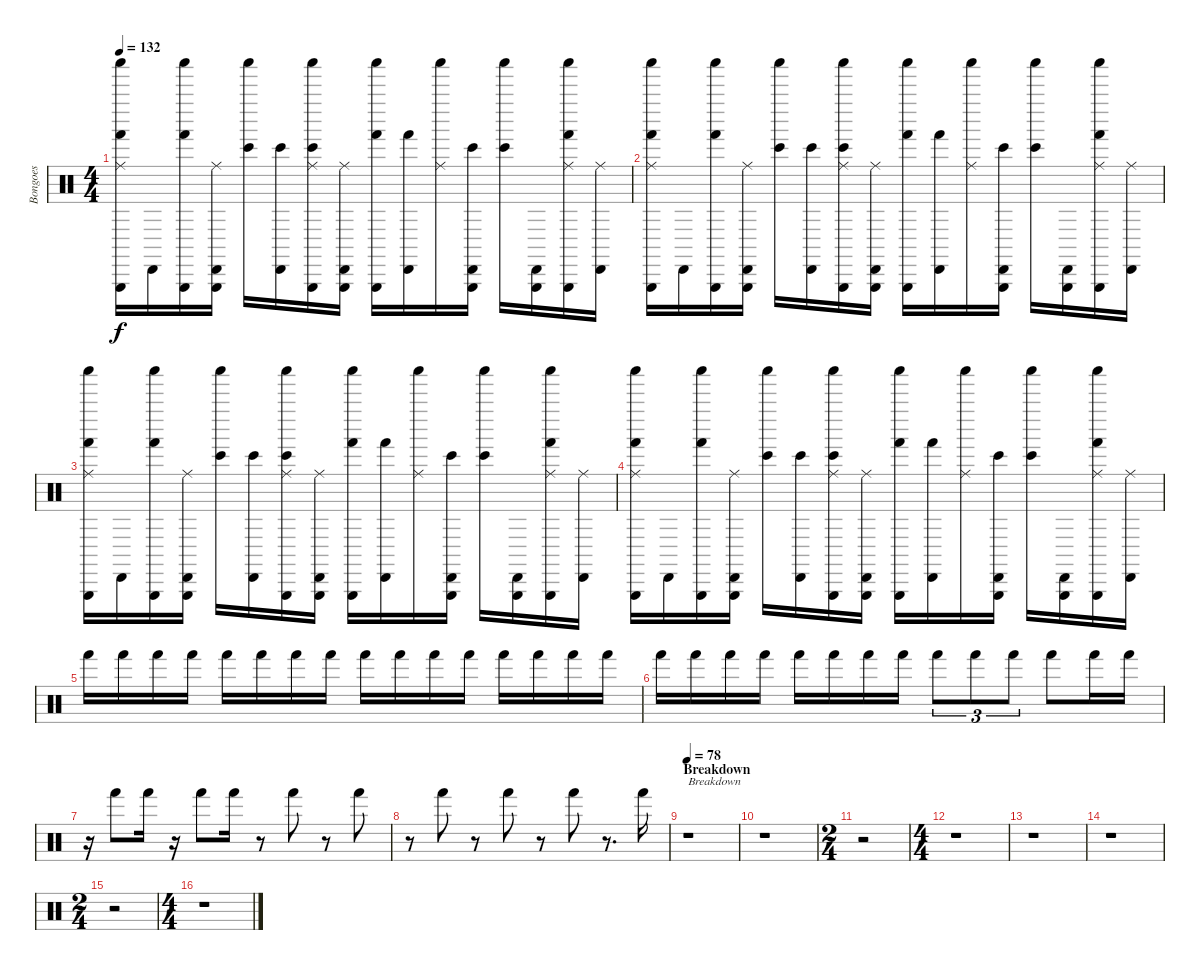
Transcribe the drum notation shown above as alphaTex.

\track ("Bongoes" "Bongoes") {instrument percussion}
\staff {score}
\articulation defaults
\ts (4 4)
\tempo 132
\clef neutral
\ks c
("Shaker (hit)" "Triangle (hit)" "Hand (hit)" "Ride (middle)").16{dy f} "Cabasa (hit)".16 ("Shaker (hit)" "Triangle (hit)" "Hand (hit)").16 ("Cabasa (hit)" "Triangle (hit)" "Ride (middle)").16 ("Shaker (hit)" "Bongo High (hit)").16 ("Cabasa (hit)" "Bongo High (hit)").16 ("Shaker (hit)" "Triangle (hit)" "Bongo High (hit)" "Ride (middle)").16 ("Cabasa (hit)" "Triangle (hit)" "Ride (middle)").16 ("Shaker (hit)" "Triangle (hit)" "Hand (hit)").16 ("Cabasa (hit)" "Hand (hit)").16 ("Shaker (hit)" "Ride (middle)").16 ("Cabasa (hit)" "Triangle (hit)" "Bongo High (hit)").16 ("Shaker (hit)" "Bongo High (hit)").16 ("Cabasa (hit)" "Triangle (hit)").16 ("Shaker (hit)" "Triangle (hit)" "Hand (hit)" "Ride (middle)").16 ("Cabasa (hit)" "Ride (middle)").16 |
("Shaker (hit)" "Triangle (hit)" "Hand (hit)" "Ride (middle)").16 "Cabasa (hit)".16 ("Shaker (hit)" "Triangle (hit)" "Hand (hit)").16 ("Cabasa (hit)" "Triangle (hit)" "Ride (middle)").16 ("Shaker (hit)" "Bongo High (hit)").16 ("Cabasa (hit)" "Bongo High (hit)").16 ("Shaker (hit)" "Triangle (hit)" "Bongo High (hit)" "Ride (middle)").16 ("Cabasa (hit)" "Triangle (hit)" "Ride (middle)").16 ("Shaker (hit)" "Triangle (hit)" "Hand (hit)").16 ("Cabasa (hit)" "Hand (hit)").16 ("Shaker (hit)" "Ride (middle)").16 ("Cabasa (hit)" "Triangle (hit)" "Bongo High (hit)").16 ("Shaker (hit)" "Bongo High (hit)").16 ("Cabasa (hit)" "Triangle (hit)").16 ("Shaker (hit)" "Triangle (hit)" "Hand (hit)" "Ride (middle)").16 ("Cabasa (hit)" "Ride (middle)").16 |
("Shaker (hit)" "Triangle (hit)" "Hand (hit)" "Ride (middle)").16 "Cabasa (hit)".16 ("Shaker (hit)" "Triangle (hit)" "Hand (hit)").16 ("Cabasa (hit)" "Triangle (hit)" "Ride (middle)").16 ("Shaker (hit)" "Bongo High (hit)").16 ("Cabasa (hit)" "Bongo High (hit)").16 ("Shaker (hit)" "Triangle (hit)" "Bongo High (hit)" "Ride (middle)").16 ("Cabasa (hit)" "Triangle (hit)" "Ride (middle)").16 ("Shaker (hit)" "Triangle (hit)" "Hand (hit)").16 ("Cabasa (hit)" "Hand (hit)").16 ("Shaker (hit)" "Ride (middle)").16 ("Cabasa (hit)" "Triangle (hit)" "Bongo High (hit)").16 ("Shaker (hit)" "Bongo High (hit)").16 ("Cabasa (hit)" "Triangle (hit)").16 ("Shaker (hit)" "Triangle (hit)" "Hand (hit)" "Ride (middle)").16 ("Cabasa (hit)" "Ride (middle)").16 |
("Shaker (hit)" "Triangle (hit)" "Hand (hit)" "Ride (middle)").16 "Cabasa (hit)".16 ("Shaker (hit)" "Triangle (hit)" "Hand (hit)").16 ("Cabasa (hit)" "Triangle (hit)" "Ride (middle)").16 ("Shaker (hit)" "Bongo High (hit)").16 ("Cabasa (hit)" "Bongo High (hit)").16 ("Shaker (hit)" "Triangle (hit)" "Bongo High (hit)" "Ride (middle)").16 ("Cabasa (hit)" "Triangle (hit)" "Ride (middle)").16 ("Shaker (hit)" "Triangle (hit)" "Hand (hit)").16 ("Cabasa (hit)" "Hand (hit)").16 ("Shaker (hit)" "Ride (middle)").16 ("Cabasa (hit)" "Triangle (hit)" "Bongo High (hit)").16 ("Shaker (hit)" "Bongo High (hit)").16 ("Cabasa (hit)" "Triangle (hit)").16 ("Shaker (hit)" "Triangle (hit)" "Hand (hit)" "Ride (middle)").16 ("Cabasa (hit)" "Ride (middle)").16 |
"Hand (hit)".16 "Hand (hit)".16 "Hand (hit)".16 "Hand (hit)".16 "Hand (hit)".16 "Hand (hit)".16 "Hand (hit)".16 "Hand (hit)".16 "Hand (hit)".16 "Hand (hit)".16 "Hand (hit)".16 "Hand (hit)".16 "Hand (hit)".16 "Hand (hit)".16 "Hand (hit)".16 "Hand (hit)".16 |
"Hand (hit)".16 "Hand (hit)".16 "Hand (hit)".16 "Hand (hit)".16 "Hand (hit)".16 "Hand (hit)".16 "Hand (hit)".16 "Hand (hit)".16 "Hand (hit)".8{tu (3 2)} "Hand (hit)".8{tu (3 2)} "Hand (hit)".8{tu (3 2)} "Hand (hit)".8 "Hand (hit)".16 "Hand (hit)".16 |
r.16 "Hand (hit)".8 "Hand (hit)".16 r.16 "Hand (hit)".8 "Hand (hit)".16 r.8 "Hand (hit)".8 r.8 "Hand (hit)".8 |
r.8 "Hand (hit)".8 r.8 "Hand (hit)".8 r.8 "Hand (hit)".8 r.8{d} "Hand (hit)".16 |
\section ("" "Breakdown")
\tempo 78
r.1{txt "Breakdown"} |
r.1 |
\ts (2 4)
r.2 |
\ts (4 4)
r.1 |
r.1 |
r.1 |
\ts (2 4)
r.2 |
\ts (4 4)
r.1
